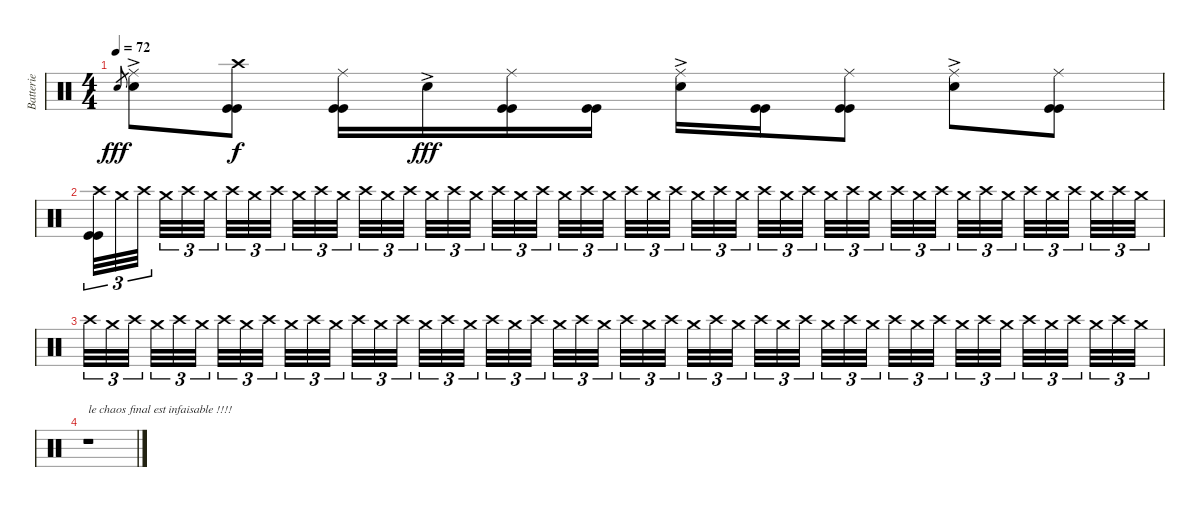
\track ("Batterie" "Batterie") {instrument percussion}
\staff {score}
\articulation defaults
\ts (4 4)
\tempo 72
\clef neutral
\ks c "Electric Snare (hit)".8{gr dy fff}
("Ride (middle)" "Electric Snare (hit)"{ac}).8 ("Crash high (hit)" "Kick (hit)" "Kick (hit)").8{dy f} ("Ride (middle)" "Kick (hit)" "Kick (hit)").16 "Electric Snare (hit)"{ac}.16{dy fff} ("Ride (middle)" "Kick (hit)" "Kick (hit)").16 ("Kick (hit)" "Kick (hit)").16 ("Ride (middle)" "Electric Snare (hit)"{ac}).16 ("Kick (hit)" "Kick (hit)").16 ("Ride (middle)" "Kick (hit)" "Kick (hit)").8 ("Ride (middle)" "Electric Snare (hit)"{ac}).8 ("Ride (middle)" "Kick (hit)" "Kick (hit)").8 |
("Crash high (hit)" "Kick (hit)" "Kick (hit)").32{tu (3 2)} "Crash medium (hit)".32{tu (3 2)} "Crash high (hit)".32{tu (3 2)} "Crash medium (hit)".32{tu (3 2)} "Crash high (hit)".32{tu (3 2)} "Crash medium (hit)".32{tu (3 2)} "Crash high (hit)".32{tu (3 2)} "Crash medium (hit)".32{tu (3 2)} "Crash high (hit)".32{tu (3 2)} "Crash medium (hit)".32{tu (3 2)} "Crash high (hit)".32{tu (3 2)} "Crash medium (hit)".32{tu (3 2)} "Crash high (hit)".32{tu (3 2)} "Crash medium (hit)".32{tu (3 2)} "Crash high (hit)".32{tu (3 2)} "Crash medium (hit)".32{tu (3 2)} "Crash high (hit)".32{tu (3 2)} "Crash medium (hit)".32{tu (3 2)} "Crash high (hit)".32{tu (3 2)} "Crash medium (hit)".32{tu (3 2)} "Crash high (hit)".32{tu (3 2)} "Crash medium (hit)".32{tu (3 2)} "Crash high (hit)".32{tu (3 2)} "Crash medium (hit)".32{tu (3 2)} "Crash high (hit)".32{tu (3 2)} "Crash medium (hit)".32{tu (3 2)} "Crash high (hit)".32{tu (3 2)} "Crash medium (hit)".32{tu (3 2)} "Crash high (hit)".32{tu (3 2)} "Crash medium (hit)".32{tu (3 2)} "Crash high (hit)".32{tu (3 2)} "Crash medium (hit)".32{tu (3 2)} "Crash high (hit)".32{tu (3 2)} "Crash medium (hit)".32{tu (3 2)} "Crash high (hit)".32{tu (3 2)} "Crash medium (hit)".32{tu (3 2)} "Crash high (hit)".32{tu (3 2)} "Crash medium (hit)".32{tu (3 2)} "Crash high (hit)".32{tu (3 2)} "Crash medium (hit)".32{tu (3 2)} "Crash high (hit)".32{tu (3 2)} "Crash medium (hit)".32{tu (3 2)} "Crash high (hit)".32{tu (3 2)} "Crash medium (hit)".32{tu (3 2)} "Crash high (hit)".32{tu (3 2)} "Crash medium (hit)".32{tu (3 2)} "Crash high (hit)".32{tu (3 2)} "Crash medium (hit)".32{tu (3 2)} |
"Crash high (hit)".32{tu (3 2)} "Crash medium (hit)".32{tu (3 2)} "Crash high (hit)".32{tu (3 2)} "Crash medium (hit)".32{tu (3 2)} "Crash high (hit)".32{tu (3 2)} "Crash medium (hit)".32{tu (3 2)} "Crash high (hit)".32{tu (3 2)} "Crash medium (hit)".32{tu (3 2)} "Crash high (hit)".32{tu (3 2)} "Crash medium (hit)".32{tu (3 2)} "Crash high (hit)".32{tu (3 2)} "Crash medium (hit)".32{tu (3 2)} "Crash high (hit)".32{tu (3 2)} "Crash medium (hit)".32{tu (3 2)} "Crash high (hit)".32{tu (3 2)} "Crash medium (hit)".32{tu (3 2)} "Crash high (hit)".32{tu (3 2)} "Crash medium (hit)".32{tu (3 2)} "Crash high (hit)".32{tu (3 2)} "Crash medium (hit)".32{tu (3 2)} "Crash high (hit)".32{tu (3 2)} "Crash medium (hit)".32{tu (3 2)} "Crash high (hit)".32{tu (3 2)} "Crash medium (hit)".32{tu (3 2)} "Crash high (hit)".32{tu (3 2)} "Crash medium (hit)".32{tu (3 2)} "Crash high (hit)".32{tu (3 2)} "Crash medium (hit)".32{tu (3 2)} "Crash high (hit)".32{tu (3 2)} "Crash medium (hit)".32{tu (3 2)} "Crash high (hit)".32{tu (3 2)} "Crash medium (hit)".32{tu (3 2)} "Crash high (hit)".32{tu (3 2)} "Crash medium (hit)".32{tu (3 2)} "Crash high (hit)".32{tu (3 2)} "Crash medium (hit)".32{tu (3 2)} "Crash high (hit)".32{tu (3 2)} "Crash medium (hit)".32{tu (3 2)} "Crash high (hit)".32{tu (3 2)} "Crash medium (hit)".32{tu (3 2)} "Crash high (hit)".32{tu (3 2)} "Crash medium (hit)".32{tu (3 2)} "Crash high (hit)".32{tu (3 2)} "Crash medium (hit)".32{tu (3 2)} "Crash high (hit)".32{tu (3 2)} "Crash medium (hit)".32{tu (3 2)} "Crash high (hit)".32{tu (3 2)} "Crash medium (hit)".32{tu (3 2)} |
r.1{txt "le chaos final est infaisable !!!!" volume 0}
